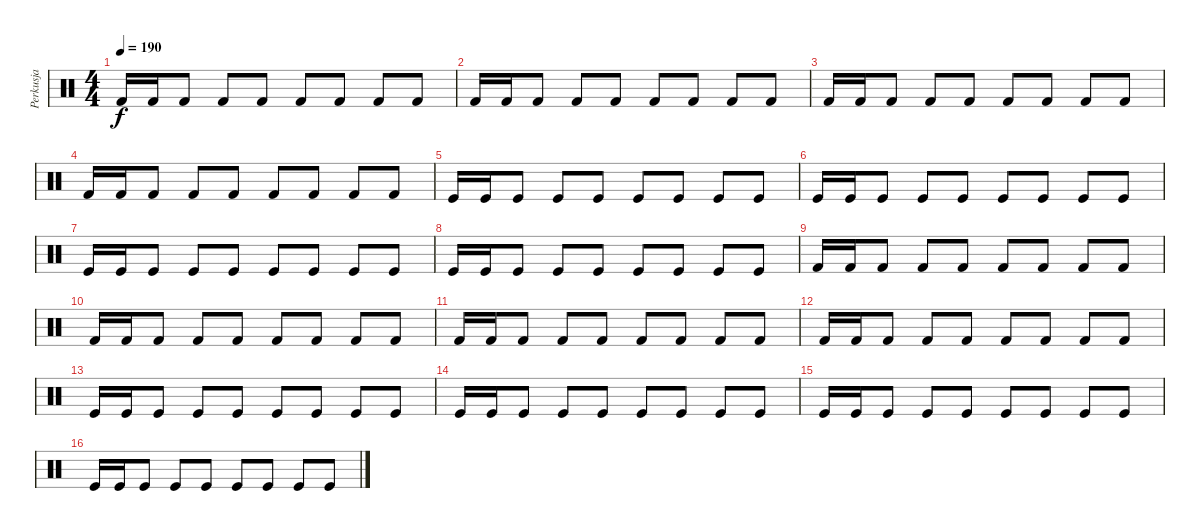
\track ("Perkusja" "Perkusja") {instrument percussion}
\staff {score}
\articulation defaults
\ts (4 4)
\tempo 190
\clef neutral
\ks c "Kick (hit) 2".16{dy f volume 0} "Kick (hit) 2".16 "Kick (hit) 2".8 "Kick (hit) 2".8 "Kick (hit) 2".8 "Kick (hit) 2".8 "Kick (hit) 2".8 "Kick (hit) 2".8 "Kick (hit) 2".8
|
"Kick (hit) 2".16 "Kick (hit) 2".16 "Kick (hit) 2".8 "Kick (hit) 2".8 "Kick (hit) 2".8 "Kick (hit) 2".8 "Kick (hit) 2".8 "Kick (hit) 2".8 "Kick (hit) 2".8 |
"Kick (hit) 2".16 "Kick (hit) 2".16 "Kick (hit) 2".8 "Kick (hit) 2".8 "Kick (hit) 2".8 "Kick (hit) 2".8 "Kick (hit) 2".8 "Kick (hit) 2".8 "Kick (hit) 2".8 |
"Kick (hit) 2".16 "Kick (hit) 2".16 "Kick (hit) 2".8 "Kick (hit) 2".8 "Kick (hit) 2".8 "Kick (hit) 2".8 "Kick (hit) 2".8 "Kick (hit) 2".8 "Kick (hit) 2".8 |
"Kick (hit)".16 "Kick (hit)".16 "Kick (hit)".8 "Kick (hit)".8 "Kick (hit)".8 "Kick (hit)".8 "Kick (hit)".8 "Kick (hit)".8 "Kick (hit)".8 |
"Kick (hit)".16 "Kick (hit)".16 "Kick (hit)".8 "Kick (hit)".8 "Kick (hit)".8 "Kick (hit)".8 "Kick (hit)".8 "Kick (hit)".8 "Kick (hit)".8 |
"Kick (hit)".16 "Kick (hit)".16 "Kick (hit)".8 "Kick (hit)".8 "Kick (hit)".8 "Kick (hit)".8 "Kick (hit)".8 "Kick (hit)".8 "Kick (hit)".8 |
"Kick (hit)".16 "Kick (hit)".16 "Kick (hit)".8 "Kick (hit)".8 "Kick (hit)".8 "Kick (hit)".8 "Kick (hit)".8 "Kick (hit)".8 "Kick (hit)".8 |
"Kick (hit) 2".16 "Kick (hit) 2".16 "Kick (hit) 2".8 "Kick (hit) 2".8 "Kick (hit) 2".8 "Kick (hit) 2".8 "Kick (hit) 2".8 "Kick (hit) 2".8 "Kick (hit) 2".8 |
"Kick (hit) 2".16 "Kick (hit) 2".16 "Kick (hit) 2".8 "Kick (hit) 2".8 "Kick (hit) 2".8 "Kick (hit) 2".8 "Kick (hit) 2".8 "Kick (hit) 2".8 "Kick (hit) 2".8 |
"Kick (hit) 2".16 "Kick (hit) 2".16 "Kick (hit) 2".8 "Kick (hit) 2".8 "Kick (hit) 2".8 "Kick (hit) 2".8 "Kick (hit) 2".8 "Kick (hit) 2".8 "Kick (hit) 2".8 |
"Kick (hit) 2".16 "Kick (hit) 2".16 "Kick (hit) 2".8 "Kick (hit) 2".8 "Kick (hit) 2".8 "Kick (hit) 2".8 "Kick (hit) 2".8 "Kick (hit) 2".8 "Kick (hit) 2".8 |
"Kick (hit)".16 "Kick (hit)".16 "Kick (hit)".8 "Kick (hit)".8 "Kick (hit)".8 "Kick (hit)".8 "Kick (hit)".8 "Kick (hit)".8 "Kick (hit)".8 |
"Kick (hit)".16 "Kick (hit)".16 "Kick (hit)".8 "Kick (hit)".8 "Kick (hit)".8 "Kick (hit)".8 "Kick (hit)".8 "Kick (hit)".8 "Kick (hit)".8 |
"Kick (hit)".16 "Kick (hit)".16 "Kick (hit)".8 "Kick (hit)".8 "Kick (hit)".8 "Kick (hit)".8 "Kick (hit)".8 "Kick (hit)".8 "Kick (hit)".8 |
"Kick (hit)".16 "Kick (hit)".16 "Kick (hit)".8 "Kick (hit)".8 "Kick (hit)".8 "Kick (hit)".8 "Kick (hit)".8 "Kick (hit)".8 "Kick (hit)".8
